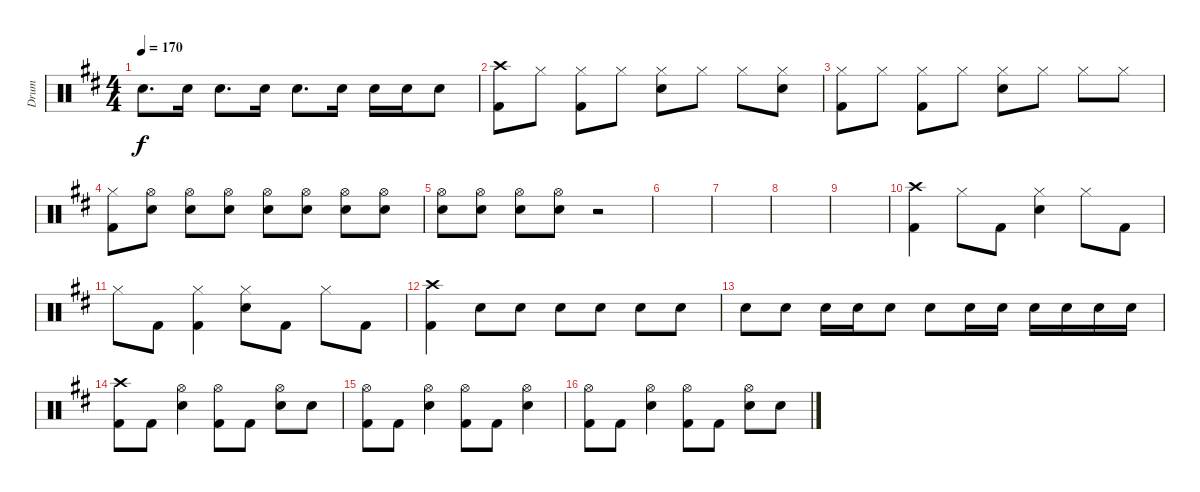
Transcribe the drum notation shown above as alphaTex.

\track ("Drum" "Drum") {instrument percussion}
\staff {score}
\articulation defaults
\ts (4 4)
\tempo 170
\clef neutral
\ks d "Electric Snare (hit)".8{d dy f} "Electric Snare (hit)".16 "Electric Snare (hit)".8{d} "Electric Snare (hit)".16 "Electric Snare (hit)".8{d} "Electric Snare (hit)".16 "Electric Snare (hit)".16 "Electric Snare (hit)".16 "Electric Snare (hit)".8
|
("Crash high (hit)" "Kick (hit) 2").8 "Hi-Hat (closed)".8 ("Hi-Hat (closed)" "Kick (hit) 2").8 "Hi-Hat (closed)".8 ("Hi-Hat (closed)" "Electric Snare (hit)").8 "Hi-Hat (closed)".8 "Hi-Hat (closed)".8 ("Hi-Hat (closed)" "Electric Snare (hit)").8 |
("Hi-Hat (closed)" "Kick (hit) 2").8 "Hi-Hat (closed)".8 ("Hi-Hat (closed)" "Kick (hit) 2").8 "Hi-Hat (closed)".8 ("Hi-Hat (closed)" "Electric Snare (hit)").8 "Hi-Hat (closed)".8 "Hi-Hat (closed)".8 "Hi-Hat (closed)".8 |
("Hi-Hat (closed)" "Kick (hit) 2").8 ("Hi-Hat (open)" "Electric Snare (hit)").8 ("Hi-Hat (open)" "Electric Snare (hit)").8 ("Hi-Hat (open)" "Electric Snare (hit)").8 ("Hi-Hat (open)" "Electric Snare (hit)").8 ("Hi-Hat (open)" "Electric Snare (hit)").8 ("Hi-Hat (open)" "Electric Snare (hit)").8 ("Hi-Hat (open)" "Electric Snare (hit)").8 |
("Hi-Hat (open)" "Electric Snare (hit)").8 ("Hi-Hat (open)" "Electric Snare (hit)").8 ("Hi-Hat (open)" "Electric Snare (hit)").8 ("Hi-Hat (open)" "Electric Snare (hit)").8 r.2 |
|
|
|
|
("Crash high (hit)" "Kick (hit) 2").4 "Hi-Hat (closed)".8 "Kick (hit) 2".8 ("Hi-Hat (closed)" "Electric Snare (hit)").4 "Hi-Hat (closed)".8 "Kick (hit) 2".8 |
"Hi-Hat (closed)".8 "Kick (hit) 2".8 ("Hi-Hat (closed)" "Kick (hit) 2").4 ("Hi-Hat (closed)" "Electric Snare (hit)").8 "Kick (hit) 2".8 "Hi-Hat (closed)".8 "Kick (hit) 2".8 |
("Crash high (hit)" "Kick (hit) 2").4 "Electric Snare (hit)".8 "Electric Snare (hit)".8 "Electric Snare (hit)".8 "Electric Snare (hit)".8 "Electric Snare (hit)".8 "Electric Snare (hit)".8 |
"Electric Snare (hit)".8 "Electric Snare (hit)".8 "Electric Snare (hit)".16 "Electric Snare (hit)".16 "Electric Snare (hit)".8 "Electric Snare (hit)".8 "Electric Snare (hit)".16 "Electric Snare (hit)".16 "Electric Snare (hit)".16 "Electric Snare (hit)".16 "Electric Snare (hit)".16 "Electric Snare (hit)".16 |
("Crash high (hit)" "Kick (hit) 2").8 "Kick (hit) 2".8 ("Hi-Hat (open)" "Electric Snare (hit)").4 ("Hi-Hat (open)" "Kick (hit) 2").8 "Kick (hit) 2".8 ("Hi-Hat (open)" "Electric Snare (hit)").8 "Electric Snare (hit)".8 |
("Hi-Hat (open)" "Kick (hit) 2").8 "Kick (hit) 2".8 ("Hi-Hat (open)" "Electric Snare (hit)").4 ("Hi-Hat (open)" "Kick (hit) 2").8 "Kick (hit) 2".8 ("Hi-Hat (open)" "Electric Snare (hit)").4 |
("Hi-Hat (open)" "Kick (hit) 2").8 "Kick (hit) 2".8 ("Hi-Hat (open)" "Electric Snare (hit)").4 ("Hi-Hat (open)" "Kick (hit) 2").8 "Kick (hit) 2".8 ("Hi-Hat (open)" "Electric Snare (hit)").8 "Electric Snare (hit)".8
